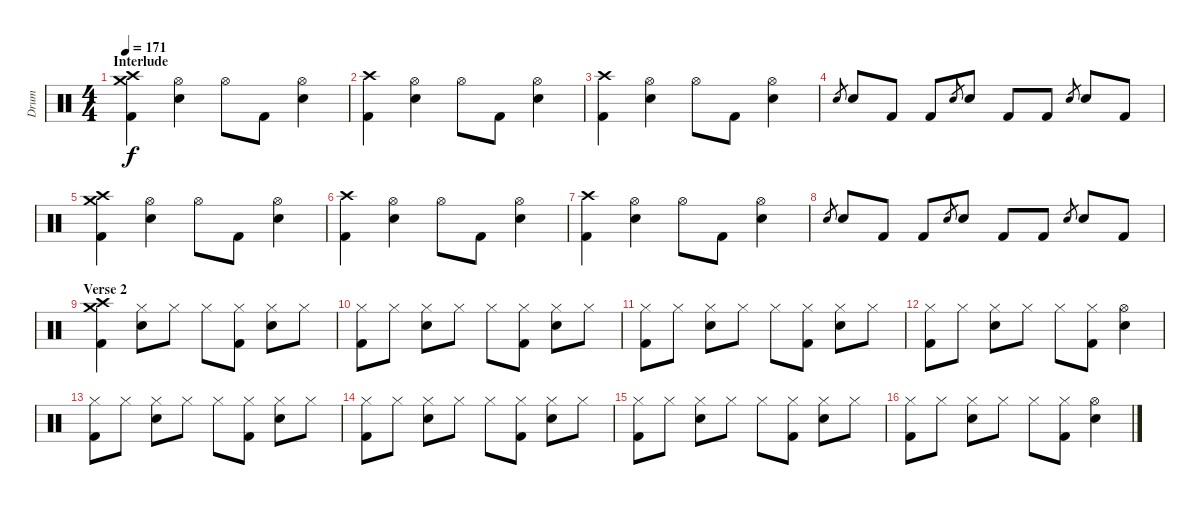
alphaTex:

\track ("Drum" "Drum") {instrument percussion}
\staff {score}
\articulation defaults
\ts (4 4)
\section ("" "Interlude")
\tempo 171
\clef neutral
\ks c
("Kick (hit) 2" "Crash high (hit)" "Crash medium (hit)").4{dy f} ("Hi-Hat (open)" "Electric Snare (hit)").4 "Hi-Hat (open)".8 "Kick (hit) 2".8 ("Hi-Hat (open)" "Electric Snare (hit)").4 |
("Kick (hit) 2" "Crash high (hit)").4 ("Hi-Hat (open)" "Electric Snare (hit)").4 "Hi-Hat (open)".8 "Kick (hit) 2".8 ("Hi-Hat (open)" "Electric Snare (hit)").4 |
("Kick (hit) 2" "Crash high (hit)").4 ("Hi-Hat (open)" "Electric Snare (hit)").4 "Hi-Hat (open)".8 "Kick (hit) 2".8 ("Hi-Hat (open)" "Electric Snare (hit)").4 |
"Electric Snare (hit)".8{gr} "Electric Snare (hit)".8 "Kick (hit) 2".8 "Kick (hit) 2".8 "Electric Snare (hit)".8{gr} "Electric Snare (hit)".8 "Kick (hit) 2".8 "Kick (hit) 2".8 "Electric Snare (hit)".8{gr} "Electric Snare (hit)".8 "Kick (hit) 2".8 |
("Kick (hit) 2" "Crash high (hit)" "Crash medium (hit)").4 ("Hi-Hat (open)" "Electric Snare (hit)").4 "Hi-Hat (open)".8 "Kick (hit) 2".8 ("Hi-Hat (open)" "Electric Snare (hit)").4 |
("Kick (hit) 2" "Crash high (hit)").4 ("Hi-Hat (open)" "Electric Snare (hit)").4 "Hi-Hat (open)".8 "Kick (hit) 2".8 ("Hi-Hat (open)" "Electric Snare (hit)").4 |
("Kick (hit) 2" "Crash high (hit)").4 ("Hi-Hat (open)" "Electric Snare (hit)").4 "Hi-Hat (open)".8 "Kick (hit) 2".8 ("Hi-Hat (open)" "Electric Snare (hit)").4 |
"Electric Snare (hit)".8{gr} "Electric Snare (hit)".8 "Kick (hit) 2".8 "Kick (hit) 2".8 "Electric Snare (hit)".8{gr} "Electric Snare (hit)".8 "Kick (hit) 2".8 "Kick (hit) 2".8 "Electric Snare (hit)".8{gr} "Electric Snare (hit)".8 "Kick (hit) 2".8 |
\section ("" "Verse 2")
("Kick (hit) 2" "Crash medium (hit)" "Crash high (hit)").4 ("Hi-Hat (closed)" "Electric Snare (hit)").8 "Hi-Hat (closed)".8 "Hi-Hat (closed)".8 ("Hi-Hat (closed)" "Kick (hit) 2").8 ("Hi-Hat (closed)" "Electric Snare (hit)").8 "Hi-Hat (closed)".8 |
("Hi-Hat (closed)" "Kick (hit) 2").8 "Hi-Hat (closed)".8 ("Hi-Hat (closed)" "Electric Snare (hit)").8 "Hi-Hat (closed)".8 "Hi-Hat (closed)".8 ("Hi-Hat (closed)" "Kick (hit) 2").8 ("Hi-Hat (closed)" "Electric Snare (hit)").8 "Hi-Hat (closed)".8 |
("Hi-Hat (closed)" "Kick (hit) 2").8 "Hi-Hat (closed)".8 ("Hi-Hat (closed)" "Electric Snare (hit)").8 "Hi-Hat (closed)".8 "Hi-Hat (closed)".8 ("Hi-Hat (closed)" "Kick (hit) 2").8 ("Hi-Hat (closed)" "Electric Snare (hit)").8 "Hi-Hat (closed)".8 |
("Hi-Hat (closed)" "Kick (hit) 2").8 "Hi-Hat (closed)".8 ("Hi-Hat (closed)" "Electric Snare (hit)").8 "Hi-Hat (closed)".8 "Hi-Hat (closed)".8 ("Hi-Hat (closed)" "Kick (hit) 2").8 ("Hi-Hat (open)" "Electric Snare (hit)").4 |
("Hi-Hat (closed)" "Kick (hit) 2").8 "Hi-Hat (closed)".8 ("Hi-Hat (closed)" "Electric Snare (hit)").8 "Hi-Hat (closed)".8 "Hi-Hat (closed)".8 ("Hi-Hat (closed)" "Kick (hit) 2").8 ("Hi-Hat (closed)" "Electric Snare (hit)").8 "Hi-Hat (closed)".8 |
("Hi-Hat (closed)" "Kick (hit) 2").8 "Hi-Hat (closed)".8 ("Hi-Hat (closed)" "Electric Snare (hit)").8 "Hi-Hat (closed)".8 "Hi-Hat (closed)".8 ("Hi-Hat (closed)" "Kick (hit) 2").8 ("Hi-Hat (closed)" "Electric Snare (hit)").8 "Hi-Hat (closed)".8 |
("Hi-Hat (closed)" "Kick (hit) 2").8 "Hi-Hat (closed)".8 ("Hi-Hat (closed)" "Electric Snare (hit)").8 "Hi-Hat (closed)".8 "Hi-Hat (closed)".8 ("Hi-Hat (closed)" "Kick (hit) 2").8 ("Hi-Hat (closed)" "Electric Snare (hit)").8 "Hi-Hat (closed)".8 |
("Hi-Hat (closed)" "Kick (hit) 2").8 "Hi-Hat (closed)".8 ("Hi-Hat (closed)" "Electric Snare (hit)").8 "Hi-Hat (closed)".8 "Hi-Hat (closed)".8 ("Hi-Hat (closed)" "Kick (hit) 2").8 ("Hi-Hat (open)" "Electric Snare (hit)").4
